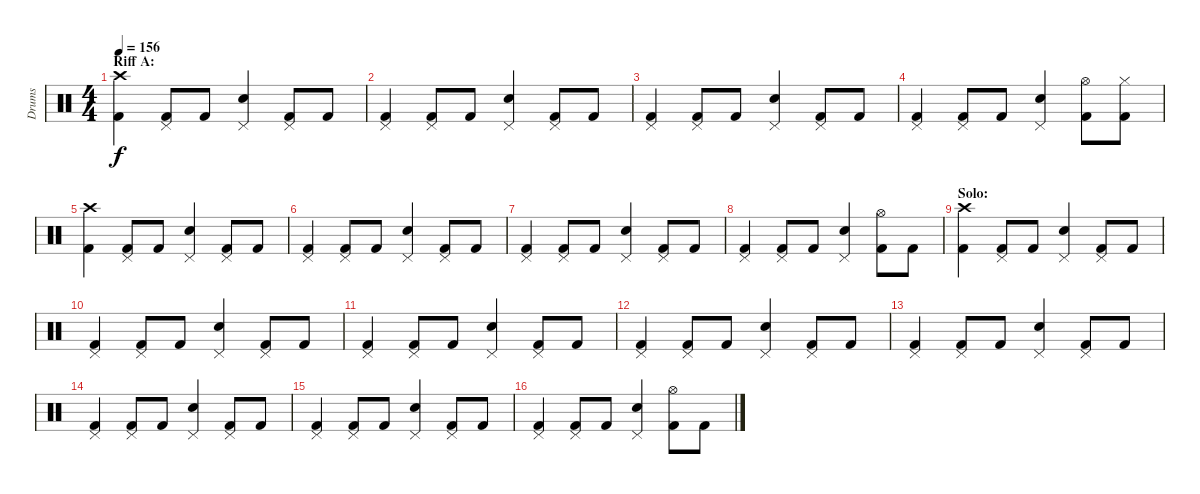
\track ("Drums" "Drums") {instrument percussion}
\staff {score}
\articulation defaults
\ts (4 4)
\section ("" "Riff A:")
\tempo 156
\clef neutral
\ks c
("Crash high (hit)" "Kick (hit) 2").4{dy f} ("Pedal Hi-Hat (hit)" "Kick (hit) 2").8 "Kick (hit) 2".8 ("Pedal Hi-Hat (hit)" "Electric Snare (hit)").4 ("Pedal Hi-Hat (hit)" "Kick (hit) 2").8 "Kick (hit) 2".8 |
("Pedal Hi-Hat (hit)" "Kick (hit) 2").4 ("Pedal Hi-Hat (hit)" "Kick (hit) 2").8 "Kick (hit) 2".8 ("Pedal Hi-Hat (hit)" "Electric Snare (hit)").4 ("Pedal Hi-Hat (hit)" "Kick (hit) 2").8 "Kick (hit) 2".8 |
("Pedal Hi-Hat (hit)" "Kick (hit) 2").4 ("Pedal Hi-Hat (hit)" "Kick (hit) 2").8 "Kick (hit) 2".8 ("Pedal Hi-Hat (hit)" "Electric Snare (hit)").4 ("Pedal Hi-Hat (hit)" "Kick (hit) 2").8 "Kick (hit) 2".8 |
("Pedal Hi-Hat (hit)" "Kick (hit) 2").4 ("Pedal Hi-Hat (hit)" "Kick (hit) 2").8 "Kick (hit) 2".8 ("Pedal Hi-Hat (hit)" "Electric Snare (hit)").4 ("Hi-Hat (open)" "Kick (hit) 2").8 ("Hi-Hat (closed)" "Kick (hit) 2").8 |
("Crash high (hit)" "Kick (hit) 2").4 ("Pedal Hi-Hat (hit)" "Kick (hit) 2").8 "Kick (hit) 2".8 ("Pedal Hi-Hat (hit)" "Electric Snare (hit)").4 ("Pedal Hi-Hat (hit)" "Kick (hit) 2").8 "Kick (hit) 2".8 |
("Pedal Hi-Hat (hit)" "Kick (hit) 2").4 ("Pedal Hi-Hat (hit)" "Kick (hit) 2").8 "Kick (hit) 2".8 ("Pedal Hi-Hat (hit)" "Electric Snare (hit)").4 ("Pedal Hi-Hat (hit)" "Kick (hit) 2").8 "Kick (hit) 2".8 |
("Pedal Hi-Hat (hit)" "Kick (hit) 2").4 ("Pedal Hi-Hat (hit)" "Kick (hit) 2").8 "Kick (hit) 2".8 ("Pedal Hi-Hat (hit)" "Electric Snare (hit)").4 ("Pedal Hi-Hat (hit)" "Kick (hit) 2").8 "Kick (hit) 2".8 |
("Pedal Hi-Hat (hit)" "Kick (hit) 2").4 ("Pedal Hi-Hat (hit)" "Kick (hit) 2").8 "Kick (hit) 2".8 ("Pedal Hi-Hat (hit)" "Electric Snare (hit)").4 ("Hi-Hat (open)" "Kick (hit) 2").8 "Kick (hit) 2".8 |
\section ("" "Solo:")
("Crash high (hit)" "Kick (hit) 2").4 ("Pedal Hi-Hat (hit)" "Kick (hit) 2").8 "Kick (hit) 2".8 ("Pedal Hi-Hat (hit)" "Electric Snare (hit)").4 ("Pedal Hi-Hat (hit)" "Kick (hit) 2").8 "Kick (hit) 2".8 |
("Pedal Hi-Hat (hit)" "Kick (hit) 2").4 ("Pedal Hi-Hat (hit)" "Kick (hit) 2").8 "Kick (hit) 2".8 ("Pedal Hi-Hat (hit)" "Electric Snare (hit)").4 ("Pedal Hi-Hat (hit)" "Kick (hit) 2").8 "Kick (hit) 2".8 |
("Pedal Hi-Hat (hit)" "Kick (hit) 2").4 ("Pedal Hi-Hat (hit)" "Kick (hit) 2").8 "Kick (hit) 2".8 ("Pedal Hi-Hat (hit)" "Electric Snare (hit)").4 ("Pedal Hi-Hat (hit)" "Kick (hit) 2").8 "Kick (hit) 2".8 |
("Pedal Hi-Hat (hit)" "Kick (hit) 2").4 ("Pedal Hi-Hat (hit)" "Kick (hit) 2").8 "Kick (hit) 2".8 ("Pedal Hi-Hat (hit)" "Electric Snare (hit)").4 ("Pedal Hi-Hat (hit)" "Kick (hit) 2").8 "Kick (hit) 2".8 |
("Pedal Hi-Hat (hit)" "Kick (hit) 2").4 ("Pedal Hi-Hat (hit)" "Kick (hit) 2").8 "Kick (hit) 2".8 ("Pedal Hi-Hat (hit)" "Electric Snare (hit)").4 ("Pedal Hi-Hat (hit)" "Kick (hit) 2").8 "Kick (hit) 2".8 |
("Pedal Hi-Hat (hit)" "Kick (hit) 2").4 ("Pedal Hi-Hat (hit)" "Kick (hit) 2").8 "Kick (hit) 2".8 ("Pedal Hi-Hat (hit)" "Electric Snare (hit)").4 ("Pedal Hi-Hat (hit)" "Kick (hit) 2").8 "Kick (hit) 2".8 |
("Pedal Hi-Hat (hit)" "Kick (hit) 2").4 ("Pedal Hi-Hat (hit)" "Kick (hit) 2").8 "Kick (hit) 2".8 ("Pedal Hi-Hat (hit)" "Electric Snare (hit)").4 ("Pedal Hi-Hat (hit)" "Kick (hit) 2").8 "Kick (hit) 2".8 |
("Pedal Hi-Hat (hit)" "Kick (hit) 2").4 ("Pedal Hi-Hat (hit)" "Kick (hit) 2").8 "Kick (hit) 2".8 ("Pedal Hi-Hat (hit)" "Electric Snare (hit)").4 ("Hi-Hat (open)" "Kick (hit) 2").8 "Kick (hit) 2".8
